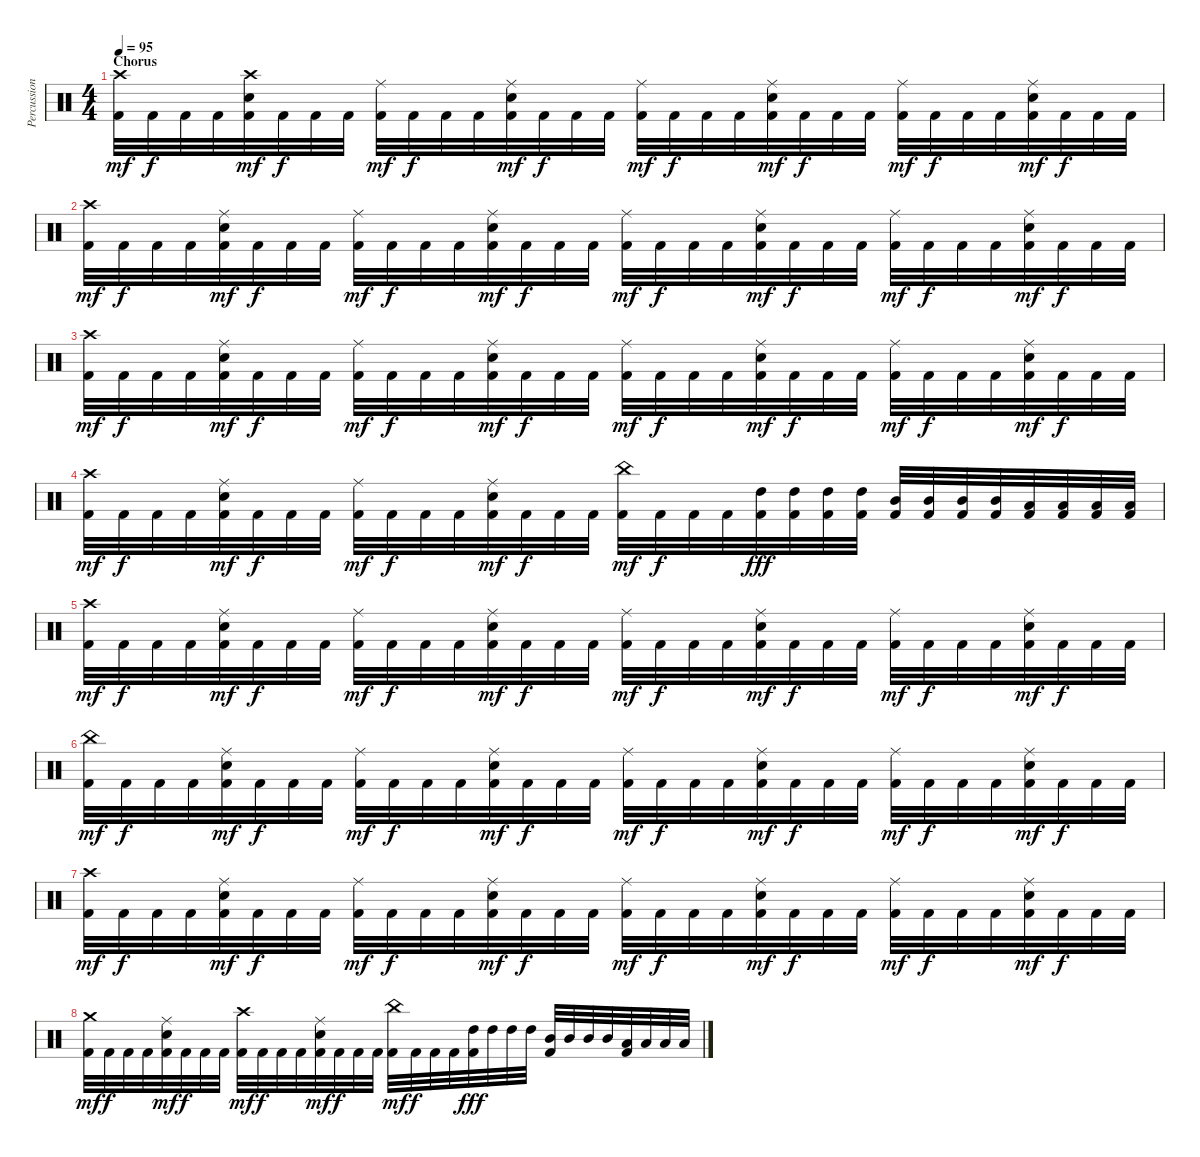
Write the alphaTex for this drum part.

\track ("Percussion" "Percussion") {instrument percussion}
\staff {score}
\articulation defaults
\ts (4 4)
\section ("" "Chorus")
\tempo 95
\clef neutral
\ks c
("Crash high (hit)" "Kick (hit) 2").32{dy mf} "Kick (hit) 2".32{dy f} "Kick (hit) 2".32 "Kick (hit) 2".32 ("Crash high (hit)" "Electric Snare (hit)" "Kick (hit) 2").32{dy mf} "Kick (hit) 2".32{dy f} "Kick (hit) 2".32 "Kick (hit) 2".32 ("Ride (middle)" "Kick (hit) 2").32{dy mf} "Kick (hit) 2".32{dy f} "Kick (hit) 2".32 "Kick (hit) 2".32 ("Ride (middle)" "Electric Snare (hit)" "Kick (hit) 2").32{dy mf} "Kick (hit) 2".32{dy f} "Kick (hit) 2".32 "Kick (hit) 2".32 ("Ride (middle)" "Kick (hit) 2").32{dy mf} "Kick (hit) 2".32{dy f} "Kick (hit) 2".32 "Kick (hit) 2".32 ("Ride (middle)" "Electric Snare (hit)" "Kick (hit) 2").32{dy mf} "Kick (hit) 2".32{dy f} "Kick (hit) 2".32 "Kick (hit) 2".32 ("Ride (middle)" "Kick (hit) 2").32{dy mf} "Kick (hit) 2".32{dy f} "Kick (hit) 2".32 "Kick (hit) 2".32 ("Ride (middle)" "Electric Snare (hit)" "Kick (hit) 2").32{dy mf} "Kick (hit) 2".32{dy f} "Kick (hit) 2".32 "Kick (hit) 2".32 |
("Crash high (hit)" "Kick (hit) 2").32{dy mf} "Kick (hit) 2".32{dy f} "Kick (hit) 2".32 "Kick (hit) 2".32 ("Ride (middle)" "Electric Snare (hit)" "Kick (hit) 2").32{dy mf} "Kick (hit) 2".32{dy f} "Kick (hit) 2".32 "Kick (hit) 2".32 ("Ride (middle)" "Kick (hit) 2").32{dy mf} "Kick (hit) 2".32{dy f} "Kick (hit) 2".32 "Kick (hit) 2".32 ("Ride (middle)" "Electric Snare (hit)" "Kick (hit) 2").32{dy mf} "Kick (hit) 2".32{dy f} "Kick (hit) 2".32 "Kick (hit) 2".32 ("Ride (middle)" "Kick (hit) 2").32{dy mf} "Kick (hit) 2".32{dy f} "Kick (hit) 2".32 "Kick (hit) 2".32 ("Ride (middle)" "Electric Snare (hit)" "Kick (hit) 2").32{dy mf} "Kick (hit) 2".32{dy f} "Kick (hit) 2".32 "Kick (hit) 2".32 ("Ride (middle)" "Kick (hit) 2").32{dy mf} "Kick (hit) 2".32{dy f} "Kick (hit) 2".32 "Kick (hit) 2".32 ("Ride (middle)" "Electric Snare (hit)" "Kick (hit) 2").32{dy mf} "Kick (hit) 2".32{dy f} "Kick (hit) 2".32 "Kick (hit) 2".32 |
("Crash high (hit)" "Kick (hit) 2").32{dy mf} "Kick (hit) 2".32{dy f} "Kick (hit) 2".32 "Kick (hit) 2".32 ("Ride (middle)" "Electric Snare (hit)" "Kick (hit) 2").32{dy mf} "Kick (hit) 2".32{dy f} "Kick (hit) 2".32 "Kick (hit) 2".32 ("Ride (middle)" "Kick (hit) 2").32{dy mf} "Kick (hit) 2".32{dy f} "Kick (hit) 2".32 "Kick (hit) 2".32 ("Ride (middle)" "Electric Snare (hit)" "Kick (hit) 2").32{dy mf} "Kick (hit) 2".32{dy f} "Kick (hit) 2".32 "Kick (hit) 2".32 ("Ride (middle)" "Kick (hit) 2").32{dy mf} "Kick (hit) 2".32{dy f} "Kick (hit) 2".32 "Kick (hit) 2".32 ("Ride (middle)" "Electric Snare (hit)" "Kick (hit) 2").32{dy mf} "Kick (hit) 2".32{dy f} "Kick (hit) 2".32 "Kick (hit) 2".32 ("Ride (middle)" "Kick (hit) 2").32{dy mf} "Kick (hit) 2".32{dy f} "Kick (hit) 2".32 "Kick (hit) 2".32 ("Ride (middle)" "Electric Snare (hit)" "Kick (hit) 2").32{dy mf} "Kick (hit) 2".32{dy f} "Kick (hit) 2".32 "Kick (hit) 2".32 |
("Crash high (hit)" "Kick (hit) 2").32{dy mf} "Kick (hit) 2".32{dy f} "Kick (hit) 2".32 "Kick (hit) 2".32 ("Ride (middle)" "Electric Snare (hit)" "Kick (hit) 2").32{dy mf} "Kick (hit) 2".32{dy f} "Kick (hit) 2".32 "Kick (hit) 2".32 ("Ride (middle)" "Kick (hit) 2").32{dy mf} "Kick (hit) 2".32{dy f} "Kick (hit) 2".32 "Kick (hit) 2".32 ("Ride (middle)" "Electric Snare (hit)" "Kick (hit) 2").32{dy mf} "Kick (hit) 2".32{dy f} "Kick (hit) 2".32 "Kick (hit) 2".32 ("China (hit)" "Kick (hit) 2").32{dy mf} "Kick (hit) 2".32{dy f} "Kick (hit) 2".32 "Kick (hit) 2".32 ("High Tom (hit)" "Kick (hit) 2").32{dy fff} ("High Tom (hit)" "Kick (hit) 2").32 ("High Tom (hit)" "Kick (hit) 2").32 ("High Tom (hit)" "Kick (hit) 2").32 ("Mid Tom (hit)" "Kick (hit) 2").32 ("Mid Tom (hit)" "Kick (hit) 2").32 ("Mid Tom (hit)" "Kick (hit) 2").32 ("Mid Tom (hit)" "Kick (hit) 2").32 ("Low Tom (hit)" "Kick (hit) 2").32 ("Low Tom (hit)" "Kick (hit) 2").32 ("Low Tom (hit)" "Kick (hit) 2").32 ("Low Tom (hit)" "Kick (hit) 2").32 |
("Crash high (hit)" "Kick (hit) 2").32{dy mf} "Kick (hit) 2".32{dy f} "Kick (hit) 2".32 "Kick (hit) 2".32 ("Ride (middle)" "Electric Snare (hit)" "Kick (hit) 2").32{dy mf} "Kick (hit) 2".32{dy f} "Kick (hit) 2".32 "Kick (hit) 2".32 ("Ride (middle)" "Kick (hit) 2").32{dy mf} "Kick (hit) 2".32{dy f} "Kick (hit) 2".32 "Kick (hit) 2".32 ("Ride (middle)" "Electric Snare (hit)" "Kick (hit) 2").32{dy mf} "Kick (hit) 2".32{dy f} "Kick (hit) 2".32 "Kick (hit) 2".32 ("Ride (middle)" "Kick (hit) 2").32{dy mf} "Kick (hit) 2".32{dy f} "Kick (hit) 2".32 "Kick (hit) 2".32 ("Ride (middle)" "Electric Snare (hit)" "Kick (hit) 2").32{dy mf} "Kick (hit) 2".32{dy f} "Kick (hit) 2".32 "Kick (hit) 2".32 ("Ride (middle)" "Kick (hit) 2").32{dy mf} "Kick (hit) 2".32{dy f} "Kick (hit) 2".32 "Kick (hit) 2".32 ("Ride (middle)" "Electric Snare (hit)" "Kick (hit) 2").32{dy mf} "Kick (hit) 2".32{dy f} "Kick (hit) 2".32 "Kick (hit) 2".32 |
("China (hit)" "Kick (hit) 2").32{dy mf} "Kick (hit) 2".32{dy f} "Kick (hit) 2".32 "Kick (hit) 2".32 ("Ride (middle)" "Electric Snare (hit)" "Kick (hit) 2").32{dy mf} "Kick (hit) 2".32{dy f} "Kick (hit) 2".32 "Kick (hit) 2".32 ("Ride (middle)" "Kick (hit) 2").32{dy mf} "Kick (hit) 2".32{dy f} "Kick (hit) 2".32 "Kick (hit) 2".32 ("Ride (middle)" "Electric Snare (hit)" "Kick (hit) 2").32{dy mf} "Kick (hit) 2".32{dy f} "Kick (hit) 2".32 "Kick (hit) 2".32 ("Ride (middle)" "Kick (hit) 2").32{dy mf} "Kick (hit) 2".32{dy f} "Kick (hit) 2".32 "Kick (hit) 2".32 ("Ride (middle)" "Electric Snare (hit)" "Kick (hit) 2").32{dy mf} "Kick (hit) 2".32{dy f} "Kick (hit) 2".32 "Kick (hit) 2".32 ("Ride (middle)" "Kick (hit) 2").32{dy mf} "Kick (hit) 2".32{dy f} "Kick (hit) 2".32 "Kick (hit) 2".32 ("Ride (middle)" "Electric Snare (hit)" "Kick (hit) 2").32{dy mf} "Kick (hit) 2".32{dy f} "Kick (hit) 2".32 "Kick (hit) 2".32 |
("Crash high (hit)" "Kick (hit) 2").32{dy mf} "Kick (hit) 2".32{dy f} "Kick (hit) 2".32 "Kick (hit) 2".32 ("Ride (middle)" "Electric Snare (hit)" "Kick (hit) 2").32{dy mf} "Kick (hit) 2".32{dy f} "Kick (hit) 2".32 "Kick (hit) 2".32 ("Ride (middle)" "Kick (hit) 2").32{dy mf} "Kick (hit) 2".32{dy f} "Kick (hit) 2".32 "Kick (hit) 2".32 ("Ride (middle)" "Electric Snare (hit)" "Kick (hit) 2").32{dy mf} "Kick (hit) 2".32{dy f} "Kick (hit) 2".32 "Kick (hit) 2".32 ("Ride (middle)" "Kick (hit) 2").32{dy mf} "Kick (hit) 2".32{dy f} "Kick (hit) 2".32 "Kick (hit) 2".32 ("Ride (middle)" "Electric Snare (hit)" "Kick (hit) 2").32{dy mf} "Kick (hit) 2".32{dy f} "Kick (hit) 2".32 "Kick (hit) 2".32 ("Ride (middle)" "Kick (hit) 2").32{dy mf} "Kick (hit) 2".32{dy f} "Kick (hit) 2".32 "Kick (hit) 2".32 ("Ride (middle)" "Electric Snare (hit)" "Kick (hit) 2").32{dy mf} "Kick (hit) 2".32{dy f} "Kick (hit) 2".32 "Kick (hit) 2".32 |
("Crash medium (hit)" "Kick (hit) 2").32{dy mf} "Kick (hit) 2".32{dy f} "Kick (hit) 2".32 "Kick (hit) 2".32 ("Ride (middle)" "Electric Snare (hit)" "Kick (hit) 2").32{dy mf} "Kick (hit) 2".32{dy f} "Kick (hit) 2".32 "Kick (hit) 2".32 ("Crash high (hit)" "Kick (hit) 2").32{dy mf} "Kick (hit) 2".32{dy f} "Kick (hit) 2".32 "Kick (hit) 2".32 ("Ride (middle)" "Electric Snare (hit)" "Kick (hit) 2").32{dy mf} "Kick (hit) 2".32{dy f} "Kick (hit) 2".32 "Kick (hit) 2".32 ("China (hit)" "Kick (hit) 2").32{dy mf} "Kick (hit) 2".32{dy f} "Kick (hit) 2".32 "Kick (hit) 2".32 ("High Tom (hit)" "Kick (hit) 2").32{dy fff} "High Tom (hit)".32 "High Tom (hit)".32 "High Tom (hit)".32 ("Mid Tom (hit)" "Kick (hit) 2").32 "Mid Tom (hit)".32 "Mid Tom (hit)".32 "Mid Tom (hit)".32 ("Low Tom (hit)" "Kick (hit) 2").32 "Low Tom (hit)".32 "Low Tom (hit)".32 "Low Tom (hit)".32
